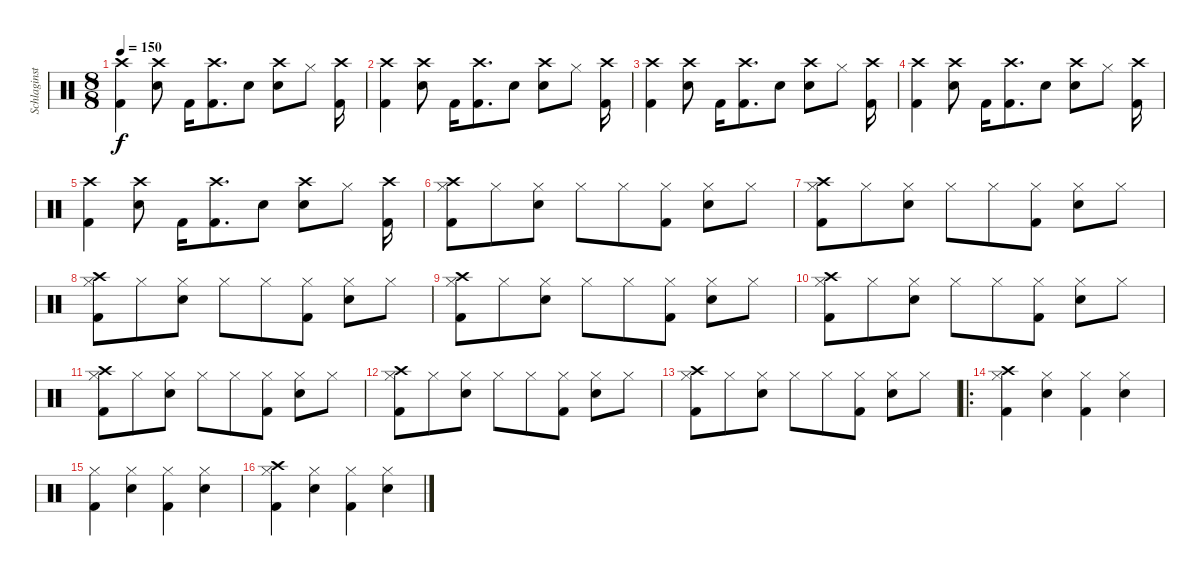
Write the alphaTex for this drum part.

\track ("Schlaginstrumente - Auswahl" "Schlaginst") {instrument percussion}
\staff {score}
\articulation defaults
\ts (8 8)
\tempo 150
\clef neutral
\ks c
("Kick (hit) 2" "Crash high (hit)").4{dy f} ("Snare (hit) 2" "Crash high (hit)").8 "Kick (hit) 2".16 ("Kick (hit) 2" "Crash high (hit)").8{d} "Snare (hit) 2".8 ("Snare (hit) 2" "Crash high (hit)").8 "Hi-Hat (closed)".8 ("Kick (hit) 2" "Crash high (hit)").16 |
("Kick (hit) 2" "Crash high (hit)").4 ("Snare (hit) 2" "Crash high (hit)").8 "Kick (hit) 2".16 ("Kick (hit) 2" "Crash high (hit)").8{d} "Snare (hit) 2".8 ("Snare (hit) 2" "Crash high (hit)").8 "Hi-Hat (closed)".8 ("Kick (hit) 2" "Crash high (hit)").16 |
("Kick (hit) 2" "Crash high (hit)").4 ("Snare (hit) 2" "Crash high (hit)").8 "Kick (hit) 2".16 ("Kick (hit) 2" "Crash high (hit)").8{d} "Snare (hit) 2".8 ("Snare (hit) 2" "Crash high (hit)").8 "Hi-Hat (closed)".8 ("Kick (hit) 2" "Crash high (hit)").16 |
("Kick (hit) 2" "Crash high (hit)").4 ("Snare (hit) 2" "Crash high (hit)").8 "Kick (hit) 2".16 ("Kick (hit) 2" "Crash high (hit)").8{d} "Snare (hit) 2".8 ("Snare (hit) 2" "Crash high (hit)").8 "Hi-Hat (closed)".8 ("Kick (hit) 2" "Crash high (hit)").16 |
("Kick (hit) 2" "Crash high (hit)").4 ("Snare (hit) 2" "Crash high (hit)").8 "Kick (hit) 2".16 ("Kick (hit) 2" "Crash high (hit)").8{d} "Snare (hit) 2".8 ("Snare (hit) 2" "Crash high (hit)").8 "Hi-Hat (closed)".8 ("Kick (hit) 2" "Crash high (hit)").16 |
("Hi-Hat (closed)" "Kick (hit) 2" "Crash high (hit)").8 "Hi-Hat (closed)".8 ("Hi-Hat (closed)" "Snare (hit) 2").8 "Hi-Hat (closed)".8 "Hi-Hat (closed)".8 ("Hi-Hat (closed)" "Kick (hit) 2").8 ("Hi-Hat (closed)" "Snare (hit) 2").8 "Hi-Hat (closed)".8 |
("Hi-Hat (closed)" "Kick (hit) 2" "Crash high (hit)").8 "Hi-Hat (closed)".8 ("Hi-Hat (closed)" "Snare (hit) 2").8 "Hi-Hat (closed)".8 "Hi-Hat (closed)".8 ("Hi-Hat (closed)" "Kick (hit) 2").8 ("Hi-Hat (closed)" "Snare (hit) 2").8 "Hi-Hat (closed)".8 |
("Hi-Hat (closed)" "Kick (hit) 2" "Crash high (hit)").8 "Hi-Hat (closed)".8 ("Hi-Hat (closed)" "Snare (hit) 2").8 "Hi-Hat (closed)".8 "Hi-Hat (closed)".8 ("Hi-Hat (closed)" "Kick (hit) 2").8 ("Hi-Hat (closed)" "Snare (hit) 2").8 "Hi-Hat (closed)".8 |
("Hi-Hat (closed)" "Kick (hit) 2" "Crash high (hit)").8 "Hi-Hat (closed)".8 ("Hi-Hat (closed)" "Snare (hit) 2").8 "Hi-Hat (closed)".8 "Hi-Hat (closed)".8 ("Hi-Hat (closed)" "Kick (hit) 2").8 ("Hi-Hat (closed)" "Snare (hit) 2").8 "Hi-Hat (closed)".8 |
("Hi-Hat (closed)" "Kick (hit) 2" "Crash high (hit)").8 "Hi-Hat (closed)".8 ("Hi-Hat (closed)" "Snare (hit) 2").8 "Hi-Hat (closed)".8 "Hi-Hat (closed)".8 ("Hi-Hat (closed)" "Kick (hit) 2").8 ("Hi-Hat (closed)" "Snare (hit) 2").8 "Hi-Hat (closed)".8 |
("Hi-Hat (closed)" "Kick (hit) 2" "Crash high (hit)").8 "Hi-Hat (closed)".8 ("Hi-Hat (closed)" "Snare (hit) 2").8 "Hi-Hat (closed)".8 "Hi-Hat (closed)".8 ("Hi-Hat (closed)" "Kick (hit) 2").8 ("Hi-Hat (closed)" "Snare (hit) 2").8 "Hi-Hat (closed)".8 |
("Hi-Hat (closed)" "Kick (hit) 2" "Crash high (hit)").8 "Hi-Hat (closed)".8 ("Hi-Hat (closed)" "Snare (hit) 2").8 "Hi-Hat (closed)".8 "Hi-Hat (closed)".8 ("Hi-Hat (closed)" "Kick (hit) 2").8 ("Hi-Hat (closed)" "Snare (hit) 2").8 "Hi-Hat (closed)".8 |
("Hi-Hat (closed)" "Kick (hit) 2" "Crash high (hit)").8 "Hi-Hat (closed)".8 ("Hi-Hat (closed)" "Snare (hit) 2").8 "Hi-Hat (closed)".8 "Hi-Hat (closed)".8 ("Hi-Hat (closed)" "Kick (hit) 2").8 ("Hi-Hat (closed)" "Snare (hit) 2").8 "Hi-Hat (closed)".8 |
\ro
("Hi-Hat (closed)" "Kick (hit) 2" "Crash high (hit)").4 ("Hi-Hat (closed)" "Snare (hit) 2").4 ("Hi-Hat (closed)" "Kick (hit) 2").4 ("Hi-Hat (closed)" "Snare (hit) 2").4 |
("Hi-Hat (closed)" "Kick (hit) 2").4 ("Hi-Hat (closed)" "Snare (hit) 2").4 ("Hi-Hat (closed)" "Kick (hit) 2").4 ("Hi-Hat (closed)" "Snare (hit) 2").4 |
("Hi-Hat (closed)" "Kick (hit) 2" "Crash high (hit)").4 ("Hi-Hat (closed)" "Snare (hit) 2").4 ("Hi-Hat (closed)" "Kick (hit) 2").4 ("Hi-Hat (closed)" "Snare (hit) 2").4
